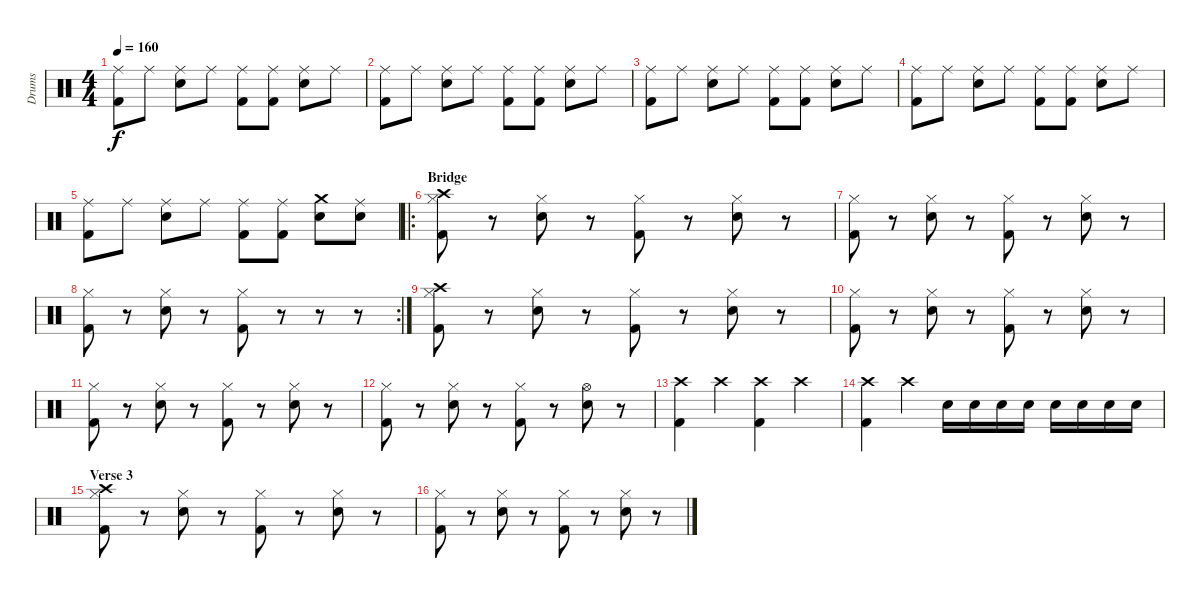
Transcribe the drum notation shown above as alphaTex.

\track ("Drums" "Drums") {instrument percussion}
\staff {score}
\articulation defaults
\ts (4 4)
\tempo 160
\clef neutral
\ks c
("Ride (middle)" "Kick (hit) 2").8{dy f} "Ride (middle)".8 ("Ride (middle)" "Electric Snare (hit)").8 "Ride (middle)".8 ("Ride (middle)" "Kick (hit) 2").8 ("Ride (middle)" "Kick (hit) 2").8 ("Ride (middle)" "Electric Snare (hit)").8 "Ride (middle)".8 |
("Ride (middle)" "Kick (hit) 2").8 "Ride (middle)".8 ("Ride (middle)" "Electric Snare (hit)").8 "Ride (middle)".8 ("Ride (middle)" "Kick (hit) 2").8 ("Ride (middle)" "Kick (hit) 2").8 ("Ride (middle)" "Electric Snare (hit)").8 "Ride (middle)".8 |
("Ride (middle)" "Kick (hit) 2").8 "Ride (middle)".8 ("Ride (middle)" "Electric Snare (hit)").8 "Ride (middle)".8 ("Ride (middle)" "Kick (hit) 2").8 ("Ride (middle)" "Kick (hit) 2").8 ("Ride (middle)" "Electric Snare (hit)").8 "Ride (middle)".8 |
("Ride (middle)" "Kick (hit) 2").8 "Ride (middle)".8 ("Ride (middle)" "Electric Snare (hit)").8 "Ride (middle)".8 ("Ride (middle)" "Kick (hit) 2").8 ("Ride (middle)" "Kick (hit) 2").8 ("Ride (middle)" "Electric Snare (hit)").8 "Ride (middle)".8 |
("Ride (middle)" "Kick (hit) 2").8 "Ride (middle)".8 ("Ride (middle)" "Electric Snare (hit)").8 "Ride (middle)".8 ("Ride (middle)" "Kick (hit) 2").8 ("Ride (middle)" "Kick (hit) 2").8 ("Electric Snare (hit)" "Crash medium (hit)").8 ("Ride (middle)" "Electric Snare (hit)").8 |
\ro
\section ("" "Bridge")
("Hi-Hat (closed)" "Kick (hit) 2" "Crash high (hit)").8 r.8 ("Hi-Hat (closed)" "Electric Snare (hit)").8 r.8 ("Hi-Hat (closed)" "Kick (hit) 2").8 r.8 ("Hi-Hat (closed)" "Electric Snare (hit)").8 r.8 |
("Hi-Hat (closed)" "Kick (hit) 2").8 r.8 ("Hi-Hat (closed)" "Electric Snare (hit)").8 r.8 ("Hi-Hat (closed)" "Kick (hit) 2").8 r.8 ("Hi-Hat (closed)" "Electric Snare (hit)").8 r.8 |
\rc 2
("Hi-Hat (closed)" "Kick (hit) 2").8 r.8 ("Hi-Hat (closed)" "Electric Snare (hit)").8 r.8 ("Hi-Hat (closed)" "Kick (hit) 2").8 r.8 r.8 r.8 |
("Hi-Hat (closed)" "Kick (hit) 2" "Crash high (hit)").8 r.8 ("Hi-Hat (closed)" "Electric Snare (hit)").8 r.8 ("Hi-Hat (closed)" "Kick (hit) 2").8 r.8 ("Hi-Hat (closed)" "Electric Snare (hit)").8 r.8 |
("Hi-Hat (closed)" "Kick (hit) 2").8 r.8 ("Hi-Hat (closed)" "Electric Snare (hit)").8 r.8 ("Hi-Hat (closed)" "Kick (hit) 2").8 r.8 ("Hi-Hat (closed)" "Electric Snare (hit)").8 r.8 |
("Hi-Hat (closed)" "Kick (hit) 2").8 r.8 ("Hi-Hat (closed)" "Electric Snare (hit)").8 r.8 ("Hi-Hat (closed)" "Kick (hit) 2").8 r.8 ("Hi-Hat (closed)" "Electric Snare (hit)").8 r.8 |
("Hi-Hat (closed)" "Kick (hit) 2").8 r.8 ("Hi-Hat (closed)" "Electric Snare (hit)").8 r.8 ("Hi-Hat (closed)" "Kick (hit) 2").8 r.8 ("Hi-Hat (open)" "Electric Snare (hit)").8 r.8 |
("Kick (hit) 2" "Crash high (hit)").4 "Crash high (hit)".4 ("Kick (hit) 2" "Crash high (hit)").4 "Crash high (hit)".4 |
("Kick (hit) 2" "Crash high (hit)").4 "Crash high (hit)".4 "Electric Snare (hit)".16 "Electric Snare (hit)".16 "Electric Snare (hit)".16 "Electric Snare (hit)".16 "Electric Snare (hit)".16 "Electric Snare (hit)".16 "Electric Snare (hit)".16 "Electric Snare (hit)".16 |
\section ("" "Verse 3")
("Hi-Hat (closed)" "Kick (hit) 2" "Crash high (hit)").8 r.8 ("Hi-Hat (closed)" "Electric Snare (hit)").8 r.8 ("Hi-Hat (closed)" "Kick (hit) 2").8 r.8 ("Hi-Hat (closed)" "Electric Snare (hit)").8 r.8 |
("Hi-Hat (closed)" "Kick (hit) 2").8 r.8 ("Hi-Hat (closed)" "Electric Snare (hit)").8 r.8 ("Hi-Hat (closed)" "Kick (hit) 2").8 r.8 ("Hi-Hat (closed)" "Electric Snare (hit)").8 r.8
